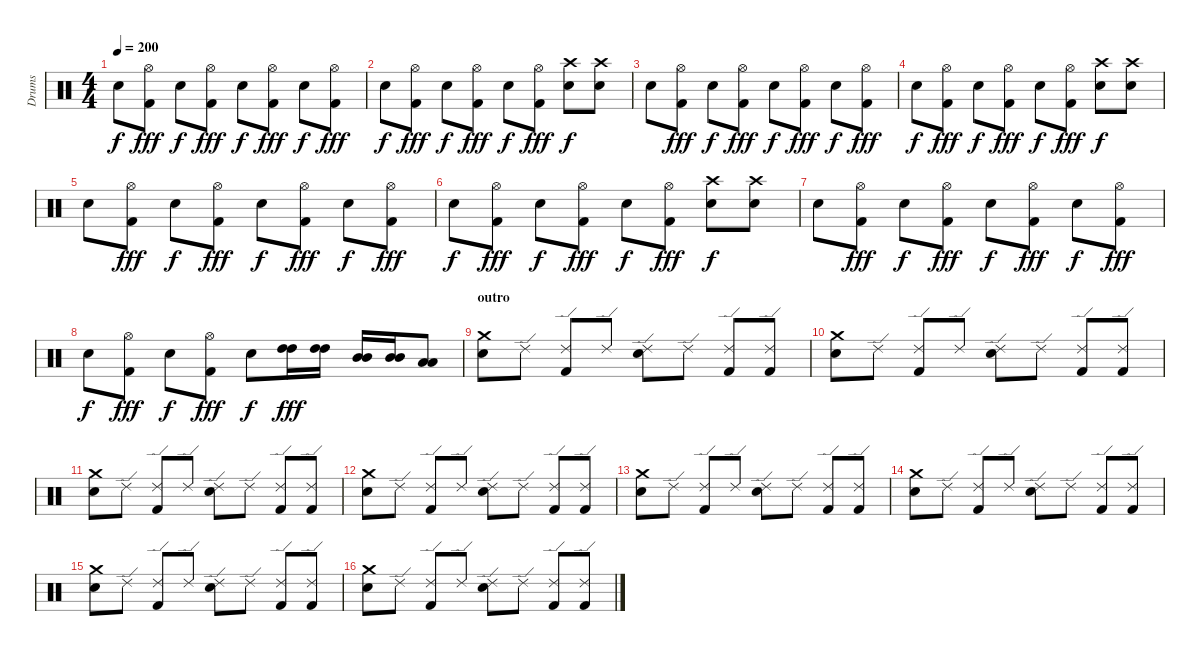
\track ("Drums" "Drums") {instrument percussion}
\staff {score}
\articulation defaults
\ts (4 4)
\tempo 200
\clef neutral
\ks c "Electric Snare (hit)".8{dy f}
("Hi-Hat (open)" "Kick (hit) 2").8{dy fff} "Electric Snare (hit)".8{dy f} ("Hi-Hat (open)" "Kick (hit) 2").8{dy fff} "Electric Snare (hit)".8{dy f} ("Hi-Hat (open)" "Kick (hit) 2").8{dy fff} "Electric Snare (hit)".8{dy f} ("Hi-Hat (open)" "Kick (hit) 2").8{dy fff} |
"Electric Snare (hit)".8{dy f} ("Hi-Hat (open)" "Kick (hit) 2").8{dy fff} "Electric Snare (hit)".8{dy f} ("Hi-Hat (open)" "Kick (hit) 2").8{dy fff} "Electric Snare (hit)".8{dy f} ("Hi-Hat (open)" "Kick (hit) 2").8{dy fff} ("Crash high (hit)" "Electric Snare (hit)").8{dy f} ("Crash high (hit)" "Electric Snare (hit)").8 |
"Electric Snare (hit)".8 ("Hi-Hat (open)" "Kick (hit) 2").8{dy fff} "Electric Snare (hit)".8{dy f} ("Hi-Hat (open)" "Kick (hit) 2").8{dy fff} "Electric Snare (hit)".8{dy f} ("Hi-Hat (open)" "Kick (hit) 2").8{dy fff} "Electric Snare (hit)".8{dy f} ("Hi-Hat (open)" "Kick (hit) 2").8{dy fff} |
"Electric Snare (hit)".8{dy f} ("Hi-Hat (open)" "Kick (hit) 2").8{dy fff} "Electric Snare (hit)".8{dy f} ("Hi-Hat (open)" "Kick (hit) 2").8{dy fff} "Electric Snare (hit)".8{dy f} ("Hi-Hat (open)" "Kick (hit) 2").8{dy fff} ("Crash high (hit)" "Electric Snare (hit)").8{dy f} ("Crash high (hit)" "Electric Snare (hit)").8 |
"Electric Snare (hit)".8 ("Hi-Hat (open)" "Kick (hit) 2").8{dy fff} "Electric Snare (hit)".8{dy f} ("Hi-Hat (open)" "Kick (hit) 2").8{dy fff} "Electric Snare (hit)".8{dy f} ("Hi-Hat (open)" "Kick (hit) 2").8{dy fff} "Electric Snare (hit)".8{dy f} ("Hi-Hat (open)" "Kick (hit) 2").8{dy fff} |
"Electric Snare (hit)".8{dy f} ("Hi-Hat (open)" "Kick (hit) 2").8{dy fff} "Electric Snare (hit)".8{dy f} ("Hi-Hat (open)" "Kick (hit) 2").8{dy fff} "Electric Snare (hit)".8{dy f} ("Hi-Hat (open)" "Kick (hit) 2").8{dy fff} ("Crash high (hit)" "Electric Snare (hit)").8{dy f} ("Crash high (hit)" "Electric Snare (hit)").8 |
"Electric Snare (hit)".8 ("Hi-Hat (open)" "Kick (hit) 2").8{dy fff} "Electric Snare (hit)".8{dy f} ("Hi-Hat (open)" "Kick (hit) 2").8{dy fff} "Electric Snare (hit)".8{dy f} ("Hi-Hat (open)" "Kick (hit) 2").8{dy fff} "Electric Snare (hit)".8{dy f} ("Hi-Hat (open)" "Kick (hit) 2").8{dy fff} |
"Electric Snare (hit)".8{dy f} ("Hi-Hat (open)" "Kick (hit) 2").8{dy fff} "Electric Snare (hit)".8{dy f} ("Hi-Hat (open)" "Kick (hit) 2").8{dy fff} "Electric Snare (hit)".8{dy f} ("High Tom (hit)" "High Tom (hit)").16{dy fff} ("High Tom (hit)" "High Tom (hit)").16 ("Mid Tom (hit)" "Mid Tom (hit)").16 ("Mid Tom (hit)" "Mid Tom (hit)").16 ("Low Tom (hit)" "Low Tom (hit)").8 |
\section ("" "outro")
("Crash medium (hit)" "Electric Snare (hit)").8 "Ride (edge) 2".8 ("Ride (edge) 2" "Kick (hit) 2").8 "Ride (edge) 2".8 ("Ride (edge) 2" "Electric Snare (hit)").8 "Ride (edge) 2".8 ("Ride (edge) 2" "Kick (hit) 2").8 ("Ride (edge) 2" "Kick (hit) 2").8 |
("Crash medium (hit)" "Electric Snare (hit)").8 "Ride (edge) 2".8 ("Ride (edge) 2" "Kick (hit) 2").8 "Ride (edge) 2".8 ("Ride (edge) 2" "Electric Snare (hit)").8 "Ride (edge) 2".8 ("Ride (edge) 2" "Kick (hit) 2").8 ("Ride (edge) 2" "Kick (hit) 2").8 |
("Crash medium (hit)" "Electric Snare (hit)").8 "Ride (edge) 2".8 ("Ride (edge) 2" "Kick (hit) 2").8 "Ride (edge) 2".8 ("Ride (edge) 2" "Electric Snare (hit)").8 "Ride (edge) 2".8 ("Ride (edge) 2" "Kick (hit) 2").8 ("Ride (edge) 2" "Kick (hit) 2").8 |
("Crash medium (hit)" "Electric Snare (hit)").8 "Ride (edge) 2".8 ("Ride (edge) 2" "Kick (hit) 2").8 "Ride (edge) 2".8 ("Ride (edge) 2" "Electric Snare (hit)").8 "Ride (edge) 2".8 ("Ride (edge) 2" "Kick (hit) 2").8 ("Ride (edge) 2" "Kick (hit) 2").8 |
("Crash medium (hit)" "Electric Snare (hit)").8 "Ride (edge) 2".8 ("Ride (edge) 2" "Kick (hit) 2").8 "Ride (edge) 2".8 ("Ride (edge) 2" "Electric Snare (hit)").8 "Ride (edge) 2".8 ("Ride (edge) 2" "Kick (hit) 2").8 ("Ride (edge) 2" "Kick (hit) 2").8 |
("Crash medium (hit)" "Electric Snare (hit)").8 "Ride (edge) 2".8 ("Ride (edge) 2" "Kick (hit) 2").8 "Ride (edge) 2".8 ("Ride (edge) 2" "Electric Snare (hit)").8 "Ride (edge) 2".8 ("Ride (edge) 2" "Kick (hit) 2").8 ("Ride (edge) 2" "Kick (hit) 2").8 |
("Crash medium (hit)" "Electric Snare (hit)").8 "Ride (edge) 2".8 ("Ride (edge) 2" "Kick (hit) 2").8 "Ride (edge) 2".8 ("Ride (edge) 2" "Electric Snare (hit)").8 "Ride (edge) 2".8 ("Ride (edge) 2" "Kick (hit) 2").8 ("Ride (edge) 2" "Kick (hit) 2").8 |
("Crash medium (hit)" "Electric Snare (hit)").8 "Ride (edge) 2".8 ("Ride (edge) 2" "Kick (hit) 2").8 "Ride (edge) 2".8 ("Ride (edge) 2" "Electric Snare (hit)").8 "Ride (edge) 2".8 ("Ride (edge) 2" "Kick (hit) 2").8 ("Ride (edge) 2" "Kick (hit) 2").8
